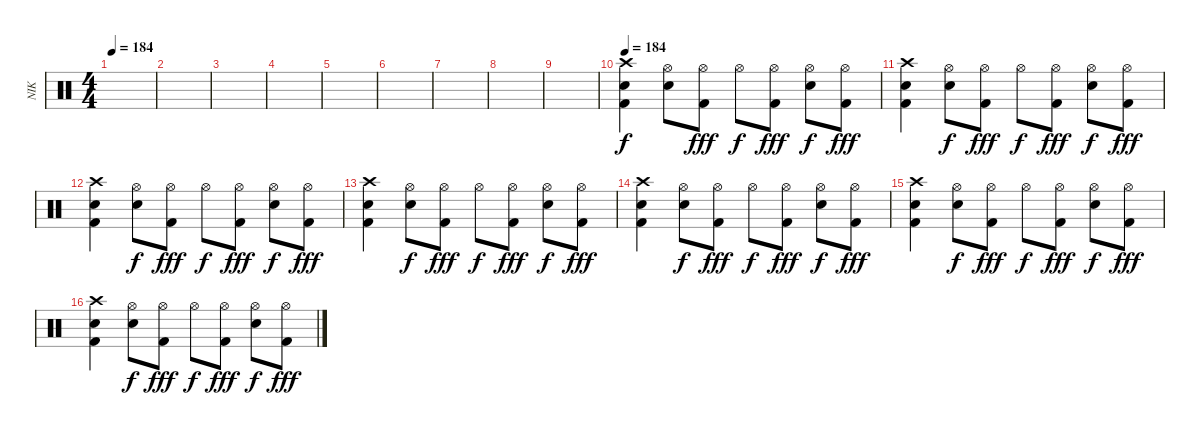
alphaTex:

\track ("NIK" "NIK") {instrument percussion}
\staff {score}
\articulation defaults
\ts (4 4)
\tempo 184
\clef neutral
\ks c
|
|
|
|
|
|
|
|
|
\tempo 184
("Crash high (hit)" "Snare (hit) 2" "Kick (hit) 2").4 ("Hi-Hat (open)" "Snare (hit) 2").8{dy f} ("Hi-Hat (open)" "Kick (hit) 2").8{dy fff} "Hi-Hat (open)".8{dy f} ("Hi-Hat (open)" "Kick (hit) 2").8{dy fff} ("Hi-Hat (open)" "Snare (hit) 2").8{dy f} ("Hi-Hat (open)" "Kick (hit) 2").8{dy fff} |
("Crash high (hit)" "Snare (hit) 2" "Kick (hit) 2").4 ("Hi-Hat (open)" "Snare (hit) 2").8{dy f} ("Hi-Hat (open)" "Kick (hit) 2").8{dy fff} "Hi-Hat (open)".8{dy f} ("Hi-Hat (open)" "Kick (hit) 2").8{dy fff} ("Hi-Hat (open)" "Snare (hit) 2").8{dy f} ("Hi-Hat (open)" "Kick (hit) 2").8{dy fff} |
("Crash high (hit)" "Snare (hit) 2" "Kick (hit) 2").4 ("Hi-Hat (open)" "Snare (hit) 2").8{dy f} ("Hi-Hat (open)" "Kick (hit) 2").8{dy fff} "Hi-Hat (open)".8{dy f} ("Hi-Hat (open)" "Kick (hit) 2").8{dy fff} ("Hi-Hat (open)" "Snare (hit) 2").8{dy f} ("Hi-Hat (open)" "Kick (hit) 2").8{dy fff} |
("Crash high (hit)" "Snare (hit) 2" "Kick (hit) 2").4 ("Hi-Hat (open)" "Snare (hit) 2").8{dy f} ("Hi-Hat (open)" "Kick (hit) 2").8{dy fff} "Hi-Hat (open)".8{dy f} ("Hi-Hat (open)" "Kick (hit) 2").8{dy fff} ("Hi-Hat (open)" "Snare (hit) 2").8{dy f} ("Hi-Hat (open)" "Kick (hit) 2").8{dy fff} |
("Crash high (hit)" "Snare (hit) 2" "Kick (hit) 2").4 ("Hi-Hat (open)" "Snare (hit) 2").8{dy f} ("Hi-Hat (open)" "Kick (hit) 2").8{dy fff} "Hi-Hat (open)".8{dy f} ("Hi-Hat (open)" "Kick (hit) 2").8{dy fff} ("Hi-Hat (open)" "Snare (hit) 2").8{dy f} ("Hi-Hat (open)" "Kick (hit) 2").8{dy fff} |
("Crash high (hit)" "Snare (hit) 2" "Kick (hit) 2").4 ("Hi-Hat (open)" "Snare (hit) 2").8{dy f} ("Hi-Hat (open)" "Kick (hit) 2").8{dy fff} "Hi-Hat (open)".8{dy f} ("Hi-Hat (open)" "Kick (hit) 2").8{dy fff} ("Hi-Hat (open)" "Snare (hit) 2").8{dy f} ("Hi-Hat (open)" "Kick (hit) 2").8{dy fff} |
("Crash high (hit)" "Snare (hit) 2" "Kick (hit) 2").4 ("Hi-Hat (open)" "Snare (hit) 2").8{dy f} ("Hi-Hat (open)" "Kick (hit) 2").8{dy fff} "Hi-Hat (open)".8{dy f} ("Hi-Hat (open)" "Kick (hit) 2").8{dy fff} ("Hi-Hat (open)" "Snare (hit) 2").8{dy f} ("Hi-Hat (open)" "Kick (hit) 2").8{dy fff}
